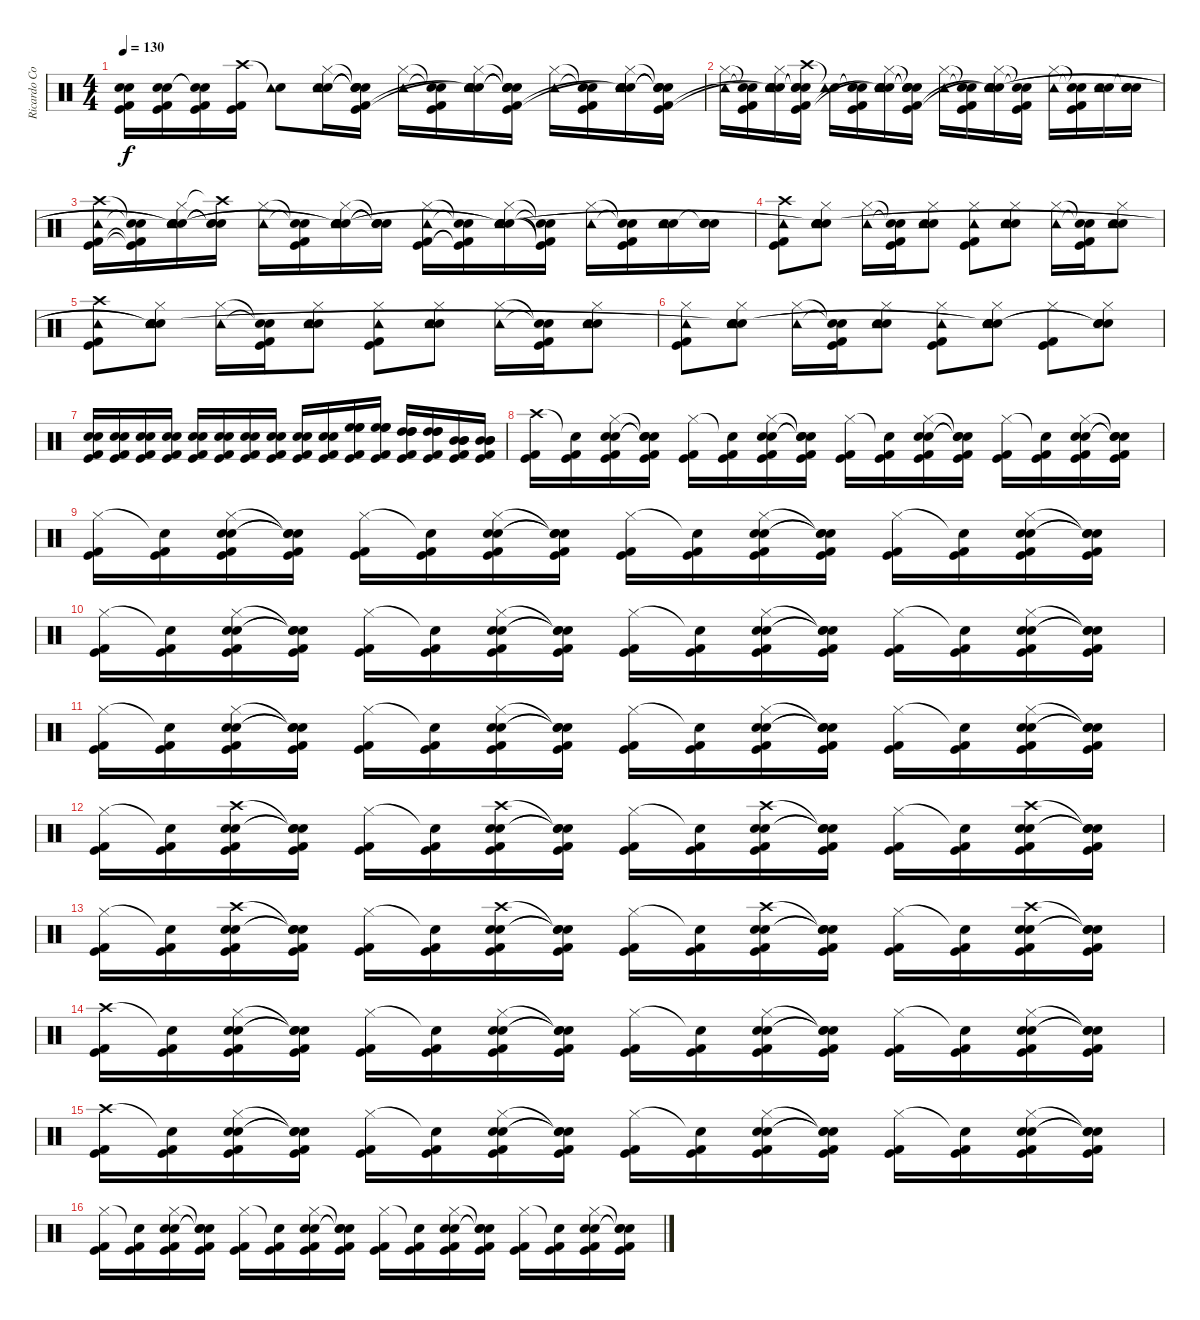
\track ("Ricardo Confessori" "Ricardo Co") {instrument percussion}
\staff {score}
\articulation defaults
\ts (4 4)
\tempo 130
\clef neutral
\ks c
("Electric Snare (hit)" "Snare (hit) 2" "Kick (hit)" "Kick (hit) 2").16{dy f} ("Electric Snare (hit)" "Snare (hit) 2" "Kick (hit)" "Kick (hit) 2").16 ("Snare (hit)"{t} "Snare (hit)"{t} "Kick (hit)" "Kick (hit) 2").16 ("Crash high (hit)" "Kick (hit)" "Kick (hit) 2").16 ("Snare (hit)"{t} "Tambourine (hit)").8 ("Hi-Hat (closed)" "Electric Snare (hit)" "Snare (hit) 2" "Tambourine (hit)").16 ("Snare (hit)"{t} "Snare (hit)"{t} "Snare (hit)"{t} "Snare (hit)"{t} "Kick (hit) 2" "Kick (hit)").16 ("Hi-Hat (closed)" "Tambourine (hit)").16 ("Snare (hit)"{t} "Snare (hit)"{t} "Kick (hit)" "Kick (hit) 2").16 ("Hi-Hat (closed)" "Electric Snare (hit)" "Snare (hit) 2" "Tambourine (hit)" "Snare (hit)"{t} "Snare (hit)"{t}).16 ("Snare (hit)"{t} "Snare (hit) 2"{t} "Snare (hit)"{t} "Snare (hit)"{t} "Kick (hit)" "Kick (hit) 2").16 ("Hi-Hat (closed)" "Tambourine (hit)").16 ("Snare (hit)"{t} "Snare (hit)"{t} "Kick (hit)" "Kick (hit) 2").16 ("Hi-Hat (closed)" "Electric Snare (hit)" "Snare (hit) 2" "Tambourine (hit)" "Snare (hit)"{t} "Snare (hit)"{t}).16 ("Snare (hit)"{t} "Snare (hit)"{t} "Snare (hit)"{t} "Snare (hit)"{t} "Kick (hit)" "Kick (hit) 2").16 |
("Hi-Hat (closed)" "Tambourine (hit)").16 ("Snare (hit)"{t} "Snare (hit)"{t} "Kick (hit) 2" "Kick (hit)").16 ("Hi-Hat (closed)" "Electric Snare (hit)" "Snare (hit) 2" "Tambourine (hit)" "Snare (hit)"{t} "Snare (hit)"{t}).16 ("Crash high (hit)" "Snare (hit)"{t} "Snare (hit)"{t} "Snare (hit)"{t} "Kick (hit) 2" "Kick (hit)").16 ("Snare (hit)"{t} "Tambourine (hit)").16 ("Snare (hit)"{t} "Snare (hit)"{t} "Kick (hit)" "Kick (hit) 2").16 ("Hi-Hat (closed)" "Electric Snare (hit)" "Snare (hit) 2" "Tambourine (hit)" "Snare (hit)"{t} "Snare (hit)"{t}).16 ("Snare (hit)"{t} "Snare (hit)"{t} "Snare (hit)"{t} "Snare (hit)"{t} "Kick (hit) 2" "Kick (hit)").16 ("Hi-Hat (closed)" "Tambourine (hit)").16 ("Snare (hit)"{t} "Snare (hit)"{t} "Kick (hit)" "Kick (hit) 2").16 ("Hi-Hat (closed)" "Electric Snare (hit)" "Snare (hit) 2" "Tambourine (hit)" "Snare (hit)"{t} "Snare (hit)"{t}).16 ("Snare (hit)"{t} "Snare (hit)"{t} "Kick (hit)" "Kick (hit) 2").16 ("Hi-Hat (closed)" "Tambourine (hit)").16 ("Snare (hit)"{t} "Snare (hit)"{t} "Kick (hit) 2" "Kick (hit)").16 ("Electric Snare (hit)" "Snare (hit) 2" "Tambourine (hit)").16 ("Electric Snare (hit)" "Snare (hit) 2" "Snare (hit)"{t}).16 |
("Crash high (hit)" "Tambourine (hit)" "Kick (hit) 2" "Kick (hit)").16 ("Snare (hit)"{t} "Snare (hit)"{t} "Kick (hit) 2"{t} "Kick (hit)"{t}).16 ("Hi-Hat (closed)" "Electric Snare (hit)" "Snare (hit) 2" "Tambourine (hit)" "Snare (hit)"{t} "Snare (hit)"{t}).16 ("Crash high (hit)"{t} "Snare (hit)"{t} "Snare (hit)"{t} "Snare (hit)"{t}).16 ("Hi-Hat (closed)" "Tambourine (hit)").16 ("Snare (hit)"{t} "Snare (hit)"{t} "Kick (hit)" "Kick (hit) 2").16 ("Hi-Hat (closed)" "Electric Snare (hit)" "Snare (hit) 2" "Tambourine (hit)" "Snare (hit)"{t} "Snare (hit)"{t}).16 ("Snare (hit)"{t} "Snare (hit)"{t} "Snare (hit)"{t} "Snare (hit)"{t}).16 ("Hi-Hat (closed)" "Tambourine (hit)" "Kick (hit) 2" "Kick (hit)").16 ("Snare (hit)"{t} "Snare (hit)"{t} "Kick (hit)"{t} "Kick (hit) 2"{t}).16 ("Hi-Hat (closed)" "Electric Snare (hit)" "Snare (hit) 2" "Tambourine (hit)" "Snare (hit)"{t} "Snare (hit)"{t}).16 ("Snare (hit)"{t} "Snare (hit)"{t} "Kick (hit)"{t} "Kick (hit) 2"{t}).16 ("Hi-Hat (closed)" "Tambourine (hit)").16 ("Snare (hit)"{t} "Snare (hit)"{t} "Kick (hit) 2" "Kick (hit)").16 ("Electric Snare (hit)" "Snare (hit) 2" "Tambourine (hit)").16 ("Electric Snare (hit)" "Snare (hit) 2" "Snare (hit)"{t}).16 |
("Crash high (hit)" "Tambourine (hit)" "Kick (hit) 2" "Kick (hit)").8 ("Hi-Hat (closed)" "Electric Snare (hit)" "Snare (hit) 2" "Tambourine (hit)" "Snare (hit)"{t} "Snare (hit)"{t}).8 ("Hi-Hat (closed)" "Tambourine (hit)").16 ("Snare (hit)"{t} "Snare (hit)"{t} "Kick (hit)" "Kick (hit) 2").16 ("Hi-Hat (closed)" "Electric Snare (hit)" "Snare (hit) 2" "Tambourine (hit)").8 ("Hi-Hat (closed)" "Tambourine (hit)" "Kick (hit)" "Kick (hit) 2").8 ("Hi-Hat (closed)" "Electric Snare (hit)" "Snare (hit) 2" "Tambourine (hit)").8 ("Hi-Hat (closed)" "Tambourine (hit)").16 ("Snare (hit)"{t} "Snare (hit)"{t} "Kick (hit)" "Kick (hit) 2").16 ("Hi-Hat (closed)" "Electric Snare (hit)" "Snare (hit) 2" "Tambourine (hit)").8 |
("Crash high (hit)" "Tambourine (hit)" "Kick (hit) 2" "Kick (hit)").8 ("Hi-Hat (closed)" "Electric Snare (hit)" "Snare (hit) 2" "Tambourine (hit)" "Snare (hit)"{t} "Snare (hit)"{t}).8 ("Hi-Hat (closed)" "Tambourine (hit)").16 ("Snare (hit)"{t} "Snare (hit)"{t} "Kick (hit)" "Kick (hit) 2").16 ("Hi-Hat (closed)" "Electric Snare (hit)" "Snare (hit) 2" "Tambourine (hit)").8 ("Hi-Hat (closed)" "Tambourine (hit)" "Kick (hit)" "Kick (hit) 2").8 ("Hi-Hat (closed)" "Electric Snare (hit)" "Snare (hit) 2" "Tambourine (hit)").8 ("Hi-Hat (closed)" "Tambourine (hit)").16 ("Snare (hit)"{t} "Snare (hit)"{t} "Kick (hit)" "Kick (hit) 2").16 ("Hi-Hat (closed)" "Electric Snare (hit)" "Snare (hit) 2" "Tambourine (hit)").8 |
("Hi-Hat (closed)" "Tambourine (hit)" "Kick (hit)" "Kick (hit) 2").8 ("Hi-Hat (closed)" "Electric Snare (hit)" "Snare (hit) 2" "Tambourine (hit)" "Snare (hit)"{t} "Snare (hit)"{t}).8 ("Hi-Hat (closed)" "Tambourine (hit)").16 ("Snare (hit)"{t} "Snare (hit)"{t} "Kick (hit) 2" "Kick (hit)").16 ("Hi-Hat (closed)" "Electric Snare (hit)" "Snare (hit) 2" "Tambourine (hit)").8 ("Hi-Hat (closed)" "Tambourine (hit)" "Kick (hit) 2" "Kick (hit)").8 ("Hi-Hat (closed)" "Electric Snare (hit)" "Snare (hit) 2" "Tambourine (hit)" "Snare (hit)"{t} "Snare (hit)"{t}).8 ("Hi-Hat (closed)" "Kick (hit)" "Kick (hit) 2").8 ("Hi-Hat (closed)" "Electric Snare (hit)" "Snare (hit) 2" "Snare (hit)"{t} "Snare (hit)"{t}).8 |
("Electric Snare (hit)" "Snare (hit) 2" "Kick (hit) 2" "Kick (hit)").16 ("Electric Snare (hit)" "Snare (hit) 2" "Kick (hit) 2" "Kick (hit)").16 ("Electric Snare (hit)" "Snare (hit) 2" "Kick (hit) 2" "Kick (hit)").16 ("Electric Snare (hit)" "Snare (hit) 2" "Kick (hit) 2" "Kick (hit)").16 ("Electric Snare (hit)" "Snare (hit) 2" "Kick (hit) 2" "Kick (hit)").16 ("Electric Snare (hit)" "Snare (hit) 2" "Kick (hit) 2" "Kick (hit)").16 ("Electric Snare (hit)" "Snare (hit) 2" "Kick (hit) 2" "Kick (hit)").16 ("Electric Snare (hit)" "Snare (hit) 2" "Kick (hit) 2" "Kick (hit)").16 ("Electric Snare (hit)" "Snare (hit) 2" "Kick (hit) 2" "Kick (hit)").16 ("Electric Snare (hit)" "Snare (hit) 2" "Kick (hit) 2" "Kick (hit)").16 ("High Floor Tom (hit)" "High Floor Tom (hit)" "High Floor Tom (hit)" "Kick (hit) 2" "Kick (hit)").16 ("High Floor Tom (hit)" "High Floor Tom (hit)" "High Floor Tom (hit)" "Kick (hit) 2" "Kick (hit)").16 ("High Tom (hit)" "High Tom (hit)" "High Tom (hit)" "Kick (hit) 2" "Kick (hit)").16 ("High Tom (hit)" "High Tom (hit)" "High Tom (hit)" "Kick (hit) 2" "Kick (hit)").16 ("Mid Tom (hit)" "Mid Tom (hit)" "Mid Tom (hit)" "Kick (hit) 2" "Kick (hit)").16 ("Mid Tom (hit)" "Mid Tom (hit)" "Mid Tom (hit)" "Kick (hit) 2" "Kick (hit)").16 |
("Crash high (hit)" "Kick (hit) 2" "Kick (hit)").16 ("Snare (hit)"{t} "Kick (hit) 2" "Kick (hit)").16 ("Hi-Hat (closed)" "Electric Snare (hit)" "Snare (hit) 2" "Kick (hit) 2" "Kick (hit)").16 ("Snare (hit)"{t} "Snare (hit)"{t} "Snare (hit)"{t} "Kick (hit) 2" "Kick (hit)").16 ("Hi-Hat (closed)" "Kick (hit)" "Kick (hit) 2").16 ("Snare (hit)"{t} "Kick (hit) 2" "Kick (hit)").16 ("Hi-Hat (closed)" "Electric Snare (hit)" "Snare (hit) 2" "Kick (hit) 2" "Kick (hit)").16 ("Snare (hit)"{t} "Snare (hit)"{t} "Snare (hit)"{t} "Kick (hit) 2" "Kick (hit)").16 ("Hi-Hat (closed)" "Kick (hit) 2" "Kick (hit)").16 ("Snare (hit)"{t} "Kick (hit) 2" "Kick (hit)").16 ("Hi-Hat (closed)" "Electric Snare (hit)" "Snare (hit) 2" "Kick (hit) 2" "Kick (hit)").16 ("Snare (hit)"{t} "Snare (hit)"{t} "Snare (hit)"{t} "Kick (hit) 2" "Kick (hit)").16 ("Hi-Hat (closed)" "Kick (hit) 2" "Kick (hit)").16 ("Snare (hit)"{t} "Kick (hit) 2" "Kick (hit)").16 ("Hi-Hat (closed)" "Electric Snare (hit)" "Snare (hit) 2" "Kick (hit) 2" "Kick (hit)").16 ("Snare (hit)"{t} "Snare (hit)"{t} "Snare (hit)"{t} "Kick (hit) 2" "Kick (hit)").16 |
("Hi-Hat (closed)" "Kick (hit) 2" "Kick (hit)").16 ("Snare (hit)"{t} "Kick (hit) 2" "Kick (hit)").16 ("Hi-Hat (closed)" "Electric Snare (hit)" "Snare (hit) 2" "Kick (hit) 2" "Kick (hit)").16 ("Snare (hit)"{t} "Snare (hit)"{t} "Snare (hit)"{t} "Kick (hit) 2" "Kick (hit)").16 ("Hi-Hat (closed)" "Kick (hit) 2" "Kick (hit)").16 ("Snare (hit)"{t} "Kick (hit) 2" "Kick (hit)").16 ("Hi-Hat (closed)" "Electric Snare (hit)" "Snare (hit) 2" "Kick (hit) 2" "Kick (hit)").16 ("Snare (hit)"{t} "Snare (hit)"{t} "Snare (hit)"{t} "Kick (hit) 2" "Kick (hit)").16 ("Hi-Hat (closed)" "Kick (hit) 2" "Kick (hit)").16 ("Snare (hit)"{t} "Kick (hit) 2" "Kick (hit)").16 ("Hi-Hat (closed)" "Electric Snare (hit)" "Snare (hit) 2" "Kick (hit) 2" "Kick (hit)").16 ("Snare (hit)"{t} "Snare (hit)"{t} "Snare (hit)"{t} "Kick (hit) 2" "Kick (hit)").16 ("Hi-Hat (closed)" "Kick (hit) 2" "Kick (hit)").16 ("Snare (hit)"{t} "Kick (hit) 2" "Kick (hit)").16 ("Hi-Hat (closed)" "Electric Snare (hit)" "Snare (hit) 2" "Kick (hit) 2" "Kick (hit)").16 ("Snare (hit)"{t} "Snare (hit)"{t} "Snare (hit)"{t} "Kick (hit) 2" "Kick (hit)").16 |
("Hi-Hat (closed)" "Kick (hit) 2" "Kick (hit)").16 ("Snare (hit)"{t} "Kick (hit) 2" "Kick (hit)").16 ("Hi-Hat (closed)" "Electric Snare (hit)" "Snare (hit) 2" "Kick (hit) 2" "Kick (hit)").16 ("Snare (hit)"{t} "Snare (hit)"{t} "Snare (hit)"{t} "Kick (hit) 2" "Kick (hit)").16 ("Hi-Hat (closed)" "Kick (hit) 2" "Kick (hit)").16 ("Snare (hit)"{t} "Kick (hit) 2" "Kick (hit)").16 ("Hi-Hat (closed)" "Electric Snare (hit)" "Snare (hit) 2" "Kick (hit) 2" "Kick (hit)").16 ("Snare (hit)"{t} "Snare (hit)"{t} "Snare (hit)"{t} "Kick (hit) 2" "Kick (hit)").16 ("Hi-Hat (closed)" "Kick (hit) 2" "Kick (hit)").16 ("Snare (hit)"{t} "Kick (hit) 2" "Kick (hit)").16 ("Hi-Hat (closed)" "Electric Snare (hit)" "Snare (hit) 2" "Kick (hit) 2" "Kick (hit)").16 ("Snare (hit)"{t} "Snare (hit)"{t} "Snare (hit)"{t} "Kick (hit) 2" "Kick (hit)").16 ("Hi-Hat (closed)" "Kick (hit) 2" "Kick (hit)").16 ("Snare (hit)"{t} "Kick (hit) 2" "Kick (hit)").16 ("Hi-Hat (closed)" "Electric Snare (hit)" "Snare (hit) 2" "Kick (hit) 2" "Kick (hit)").16 ("Snare (hit)"{t} "Snare (hit)"{t} "Snare (hit)"{t} "Kick (hit) 2" "Kick (hit)").16 |
("Hi-Hat (closed)" "Kick (hit) 2" "Kick (hit)").16 ("Snare (hit)"{t} "Kick (hit) 2" "Kick (hit)").16 ("Hi-Hat (closed)" "Electric Snare (hit)" "Snare (hit) 2" "Kick (hit) 2" "Kick (hit)").16 ("Snare (hit)"{t} "Snare (hit)"{t} "Snare (hit)"{t} "Kick (hit) 2" "Kick (hit)").16 ("Hi-Hat (closed)" "Kick (hit) 2" "Kick (hit)").16 ("Snare (hit)"{t} "Kick (hit) 2" "Kick (hit)").16 ("Hi-Hat (closed)" "Electric Snare (hit)" "Snare (hit) 2" "Kick (hit) 2" "Kick (hit)").16 ("Snare (hit)"{t} "Snare (hit)"{t} "Snare (hit)"{t} "Kick (hit) 2" "Kick (hit)").16 ("Hi-Hat (closed)" "Kick (hit) 2" "Kick (hit)").16 ("Snare (hit)"{t} "Kick (hit) 2" "Kick (hit)").16 ("Hi-Hat (closed)" "Electric Snare (hit)" "Snare (hit) 2" "Kick (hit) 2" "Kick (hit)").16 ("Snare (hit)"{t} "Snare (hit)"{t} "Snare (hit)"{t} "Kick (hit) 2" "Kick (hit)").16 ("Hi-Hat (closed)" "Kick (hit) 2" "Kick (hit)").16 ("Snare (hit)"{t} "Kick (hit) 2" "Kick (hit)").16 ("Hi-Hat (closed)" "Electric Snare (hit)" "Snare (hit) 2" "Kick (hit) 2" "Kick (hit)").16 ("Snare (hit)"{t} "Snare (hit)"{t} "Snare (hit)"{t} "Kick (hit) 2" "Kick (hit)").16 |
("Hi-Hat (closed)" "Kick (hit) 2" "Kick (hit)").16 ("Snare (hit)"{t} "Kick (hit) 2" "Kick (hit)").16 ("Crash high (hit)" "Electric Snare (hit)" "Snare (hit) 2" "Kick (hit) 2" "Kick (hit)").16 ("Snare (hit)"{t} "Snare (hit)"{t} "Snare (hit)"{t} "Kick (hit) 2" "Kick (hit)").16 ("Hi-Hat (closed)" "Kick (hit) 2" "Kick (hit)").16 ("Snare (hit)"{t} "Kick (hit) 2" "Kick (hit)").16 ("Crash high (hit)" "Electric Snare (hit)" "Snare (hit) 2" "Kick (hit) 2" "Kick (hit)").16 ("Snare (hit)"{t} "Snare (hit)"{t} "Snare (hit)"{t} "Kick (hit) 2" "Kick (hit)").16 ("Hi-Hat (closed)" "Kick (hit) 2" "Kick (hit)").16 ("Snare (hit)"{t} "Kick (hit) 2" "Kick (hit)").16 ("Crash high (hit)" "Electric Snare (hit)" "Snare (hit) 2" "Kick (hit) 2" "Kick (hit)").16 ("Snare (hit)"{t} "Snare (hit)"{t} "Snare (hit)"{t} "Kick (hit) 2" "Kick (hit)").16 ("Hi-Hat (closed)" "Kick (hit) 2" "Kick (hit)").16 ("Snare (hit)"{t} "Kick (hit) 2" "Kick (hit)").16 ("Crash high (hit)" "Electric Snare (hit)" "Snare (hit) 2" "Kick (hit) 2" "Kick (hit)").16 ("Snare (hit)"{t} "Snare (hit)"{t} "Snare (hit)"{t} "Kick (hit) 2" "Kick (hit)").16 |
("Hi-Hat (closed)" "Kick (hit) 2" "Kick (hit)").16 ("Snare (hit)"{t} "Kick (hit) 2" "Kick (hit)").16 ("Crash high (hit)" "Electric Snare (hit)" "Snare (hit) 2" "Kick (hit) 2" "Kick (hit)").16 ("Snare (hit)"{t} "Snare (hit)"{t} "Snare (hit)"{t} "Kick (hit) 2" "Kick (hit)").16 ("Hi-Hat (closed)" "Kick (hit) 2" "Kick (hit)").16 ("Snare (hit)"{t} "Kick (hit) 2" "Kick (hit)").16 ("Crash high (hit)" "Electric Snare (hit)" "Snare (hit) 2" "Kick (hit) 2" "Kick (hit)").16 ("Snare (hit)"{t} "Snare (hit)"{t} "Snare (hit)"{t} "Kick (hit) 2" "Kick (hit)").16 ("Hi-Hat (closed)" "Kick (hit) 2" "Kick (hit)").16 ("Snare (hit)"{t} "Kick (hit) 2" "Kick (hit)").16 ("Crash high (hit)" "Electric Snare (hit)" "Snare (hit) 2" "Kick (hit) 2" "Kick (hit)").16 ("Snare (hit)"{t} "Snare (hit)"{t} "Snare (hit)"{t} "Kick (hit) 2" "Kick (hit)").16 ("Hi-Hat (closed)" "Kick (hit) 2" "Kick (hit)").16 ("Snare (hit)"{t} "Kick (hit) 2" "Kick (hit)").16 ("Crash high (hit)" "Electric Snare (hit)" "Snare (hit) 2" "Kick (hit) 2" "Kick (hit)").16 ("Snare (hit)"{t} "Snare (hit)"{t} "Snare (hit)"{t} "Kick (hit) 2" "Kick (hit)").16 |
("Crash high (hit)" "Kick (hit) 2" "Kick (hit)").16 ("Snare (hit)"{t} "Kick (hit) 2" "Kick (hit)").16 ("Hi-Hat (closed)" "Electric Snare (hit)" "Snare (hit) 2" "Kick (hit) 2" "Kick (hit)").16 ("Snare (hit)"{t} "Snare (hit)"{t} "Snare (hit)"{t} "Kick (hit) 2" "Kick (hit)").16 ("Hi-Hat (closed)" "Kick (hit) 2" "Kick (hit)").16 ("Snare (hit)"{t} "Kick (hit) 2" "Kick (hit)").16 ("Hi-Hat (closed)" "Electric Snare (hit)" "Snare (hit) 2" "Kick (hit) 2" "Kick (hit)").16 ("Snare (hit)"{t} "Snare (hit)"{t} "Snare (hit)"{t} "Kick (hit) 2" "Kick (hit)").16 ("Hi-Hat (closed)" "Kick (hit) 2" "Kick (hit)").16 ("Snare (hit)"{t} "Kick (hit) 2" "Kick (hit)").16 ("Hi-Hat (closed)" "Electric Snare (hit)" "Snare (hit) 2" "Kick (hit) 2" "Kick (hit)").16 ("Snare (hit)"{t} "Snare (hit)"{t} "Snare (hit)"{t} "Kick (hit) 2" "Kick (hit)").16 ("Hi-Hat (closed)" "Kick (hit) 2" "Kick (hit)").16 ("Snare (hit)"{t} "Kick (hit) 2" "Kick (hit)").16 ("Hi-Hat (closed)" "Electric Snare (hit)" "Snare (hit) 2" "Kick (hit) 2" "Kick (hit)").16 ("Snare (hit)"{t} "Snare (hit)"{t} "Snare (hit)"{t} "Kick (hit) 2" "Kick (hit)").16 |
("Crash high (hit)" "Kick (hit) 2" "Kick (hit)").16 ("Snare (hit)"{t} "Kick (hit) 2" "Kick (hit)").16 ("Hi-Hat (closed)" "Electric Snare (hit)" "Snare (hit) 2" "Kick (hit) 2" "Kick (hit)").16 ("Snare (hit)"{t} "Snare (hit)"{t} "Snare (hit)"{t} "Kick (hit) 2" "Kick (hit)").16 ("Hi-Hat (closed)" "Kick (hit) 2" "Kick (hit)").16 ("Snare (hit)"{t} "Kick (hit) 2" "Kick (hit)").16 ("Hi-Hat (closed)" "Electric Snare (hit)" "Snare (hit) 2" "Kick (hit) 2" "Kick (hit)").16 ("Snare (hit)"{t} "Snare (hit)"{t} "Snare (hit)"{t} "Kick (hit) 2" "Kick (hit)").16 ("Hi-Hat (closed)" "Kick (hit) 2" "Kick (hit)").16 ("Snare (hit)"{t} "Kick (hit) 2" "Kick (hit)").16 ("Hi-Hat (closed)" "Electric Snare (hit)" "Snare (hit) 2" "Kick (hit) 2" "Kick (hit)").16 ("Snare (hit)"{t} "Snare (hit)"{t} "Snare (hit)"{t} "Kick (hit) 2" "Kick (hit)").16 ("Hi-Hat (closed)" "Kick (hit) 2" "Kick (hit)").16 ("Snare (hit)"{t} "Kick (hit) 2" "Kick (hit)").16 ("Hi-Hat (closed)" "Electric Snare (hit)" "Snare (hit) 2" "Kick (hit) 2" "Kick (hit)").16 ("Snare (hit)"{t} "Snare (hit)"{t} "Snare (hit)"{t} "Kick (hit) 2" "Kick (hit)").16 |
("Hi-Hat (closed)" "Kick (hit) 2" "Kick (hit)").16 ("Snare (hit)"{t} "Kick (hit) 2" "Kick (hit)").16 ("Hi-Hat (closed)" "Electric Snare (hit)" "Snare (hit) 2" "Kick (hit) 2" "Kick (hit)").16 ("Snare (hit)"{t} "Snare (hit)"{t} "Snare (hit)"{t} "Kick (hit) 2" "Kick (hit)").16 ("Hi-Hat (closed)" "Kick (hit) 2" "Kick (hit)").16 ("Snare (hit)"{t} "Kick (hit) 2" "Kick (hit)").16 ("Hi-Hat (closed)" "Electric Snare (hit)" "Snare (hit) 2" "Kick (hit) 2" "Kick (hit)").16 ("Snare (hit)"{t} "Snare (hit)"{t} "Snare (hit)"{t} "Kick (hit) 2" "Kick (hit)").16 ("Hi-Hat (closed)" "Kick (hit) 2" "Kick (hit)").16 ("Snare (hit)"{t} "Kick (hit) 2" "Kick (hit)").16 ("Hi-Hat (closed)" "Electric Snare (hit)" "Snare (hit) 2" "Kick (hit) 2" "Kick (hit)").16 ("Snare (hit)"{t} "Snare (hit)"{t} "Snare (hit)"{t} "Kick (hit) 2" "Kick (hit)").16 ("Hi-Hat (closed)" "Kick (hit) 2" "Kick (hit)").16 ("Snare (hit)"{t} "Kick (hit) 2" "Kick (hit)").16 ("Hi-Hat (closed)" "Electric Snare (hit)" "Snare (hit) 2" "Kick (hit) 2" "Kick (hit)").16 ("Snare (hit)"{t} "Snare (hit)"{t} "Snare (hit)"{t} "Kick (hit) 2" "Kick (hit)").16
